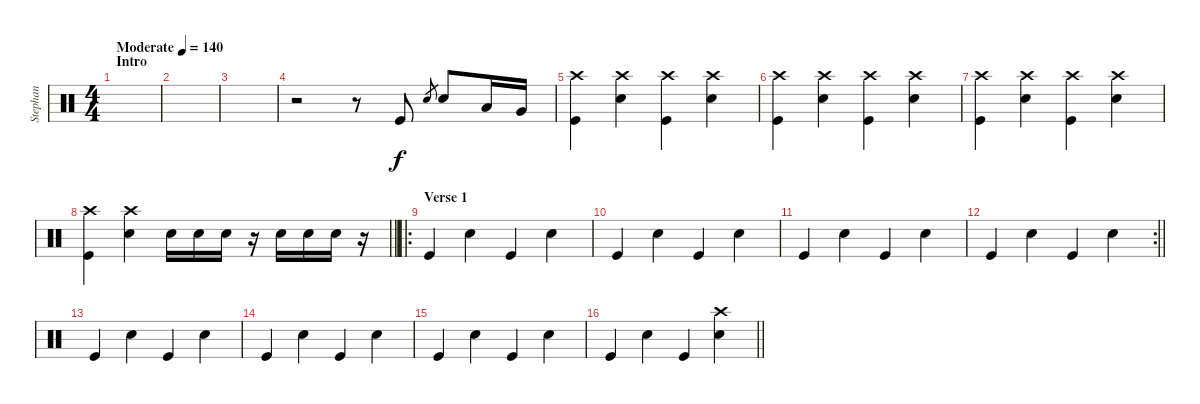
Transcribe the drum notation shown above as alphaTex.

\track ("Stephan" "Stephan") {instrument percussion}
\staff {score}
\articulation defaults
\ts (4 4)
\section ("" "Intro")
\tempo (140 "Moderate")
\clef neutral
\ks c
|
|
|
r.2 r.8 "Kick (hit)".8 "Snare (hit) 2".8{gr} "Snare (hit) 2".8 "Low Tom (hit)".16 "Very Low Tom (hit)".16 |
("Kick (hit)" "Crash high (hit)").4 ("Snare (hit) 2" "Crash high (hit)").4 ("Kick (hit)" "Crash high (hit)").4 ("Snare (hit) 2" "Crash high (hit)").4 |
("Kick (hit)" "Crash high (hit)").4 ("Snare (hit) 2" "Crash high (hit)").4 ("Kick (hit)" "Crash high (hit)").4 ("Snare (hit) 2" "Crash high (hit)").4 |
("Kick (hit)" "Crash high (hit)").4 ("Snare (hit) 2" "Crash high (hit)").4 ("Kick (hit)" "Crash high (hit)").4 ("Snare (hit) 2" "Crash high (hit)").4 |
\barLineRight lightlight
("Kick (hit)" "Crash high (hit)").4 ("Snare (hit) 2" "Crash high (hit)").4 "Snare (hit) 2".16 "Snare (hit) 2".16 "Snare (hit) 2".16 r.16 "Snare (hit) 2".16 "Snare (hit) 2".16 "Snare (hit) 2".16 r.16 |
\ro
\section ("" "Verse 1")
"Kick (hit)".4 "Snare (hit) 2".4 "Kick (hit)".4 "Snare (hit) 2".4 |
"Kick (hit)".4 "Snare (hit) 2".4 "Kick (hit)".4 "Snare (hit) 2".4 |
"Kick (hit)".4 "Snare (hit) 2".4 "Kick (hit)".4 "Snare (hit) 2".4 |
\rc 2
\barLineRight lightlight "Kick (hit)".4 "Snare (hit) 2".4 "Kick (hit)".4 "Snare (hit) 2".4
|
\section ("" "")
"Kick (hit)".4 "Snare (hit) 2".4 "Kick (hit)".4 "Snare (hit) 2".4 |
"Kick (hit)".4 "Snare (hit) 2".4 "Kick (hit)".4 "Snare (hit) 2".4 |
"Kick (hit)".4 "Snare (hit) 2".4 "Kick (hit)".4 "Snare (hit) 2".4 |
\barLineRight lightlight "Kick (hit)".4 "Snare (hit) 2".4 "Kick (hit)".4
("Snare (hit) 2" "Crash high (hit)").4
